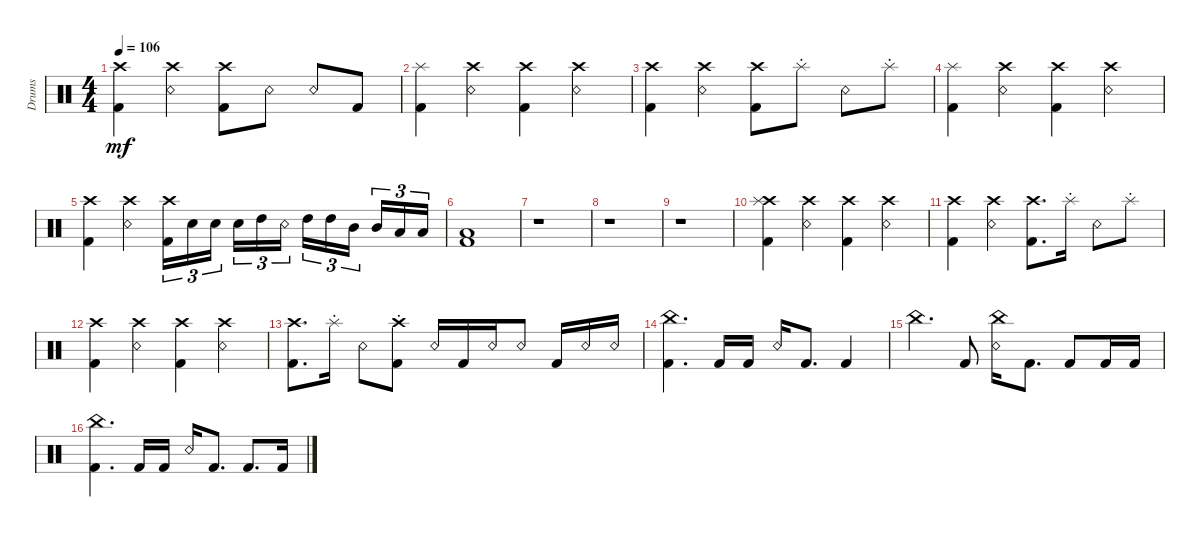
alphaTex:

\track ("Drums" "Drums") {instrument percussion}
\staff {score}
\articulation defaults
\ts (4 4)
\tempo 106
\clef neutral
\ks c
("Crash high (hit)" "Kick (hit) 2").4{dy mf} ("Crash high (hit)" "Snare (rim shot)").4 ("Crash high (hit)" "Kick (hit) 2").8 "Snare (rim shot)".8 "Snare (rim shot)".8 "Kick (hit) 2".8 |
("Splash (hit)" "Kick (hit) 2").4 ("Crash high (hit)" "Snare (rim shot)").4 ("Crash high (hit)" "Kick (hit) 2").4 ("Crash high (hit)" "Snare (rim shot)").4 |
("Crash high (hit)" "Kick (hit) 2").4 ("Crash high (hit)" "Snare (rim shot)").4 ("Crash high (hit)" "Kick (hit) 2").8 "Splash (choke)".8 "Snare (rim shot)".8 "Splash (choke)".8 |
("Splash (hit)" "Kick (hit) 2").4 ("Crash high (hit)" "Snare (rim shot)").4 ("Crash high (hit)" "Kick (hit) 2").4 ("Crash high (hit)" "Snare (rim shot)").4 |
("Crash high (hit)" "Kick (hit) 2").4 ("Crash high (hit)" "Snare (rim shot)").4 ("Crash high (hit)" "Kick (hit) 2").16{tu (3 2)} "Snare (hit) 2".16{tu (3 2)} "Snare (hit) 2".16{tu (3 2)} "Snare (hit) 2".16{tu (3 2)} "High Tom (hit)".16{tu (3 2)} "Snare (rim shot)".16{tu (3 2)} "High Tom (hit)".16{tu (3 2)} "High Tom (hit)".16{tu (3 2)} "Mid Tom (hit)".16{tu (3 2)} "Mid Tom (hit)".16{tu (3 2)} "Low Tom (hit)".16{tu (3 2)} "Low Tom (hit)".16{tu (3 2)} |
("Low Tom (hit)" "Kick (hit) 2").1 |
r.1 |
r.1 |
r.1 |
("Crash high (hit)" "Splash (hit)" "Kick (hit) 2").4 ("Crash high (hit)" "Snare (rim shot)").4 ("Crash high (hit)" "Kick (hit) 2").4 ("Crash high (hit)" "Snare (rim shot)").4 |
("Crash high (hit)" "Kick (hit) 2").4 ("Crash high (hit)" "Snare (rim shot)").4 ("Crash high (hit)" "Kick (hit) 2").8{d} "Splash (choke)".16 "Snare (rim shot)".8 "Splash (choke)".8 |
("Crash high (hit)" "Kick (hit) 2").4 ("Crash high (hit)" "Snare (rim shot)").4 ("Crash high (hit)" "Kick (hit) 2").4 ("Crash high (hit)" "Snare (rim shot)").4 |
("Crash high (hit)" "Kick (hit) 2").8{d} "Splash (choke)".16 "Snare (rim shot)".8 ("Crash high (hit)"{st} "Kick (hit) 2").8 "Snare (rim shot)".16 "Kick (hit) 2".16 "Snare (rim shot)".16 "Snare (rim shot)".8 "Kick (hit) 2".16 "Snare (rim shot)".16 "Snare (rim shot)".16 |
("China (hit)" "Kick (hit) 2").4{d} "Kick (hit) 2".16 "Kick (hit) 2".16 "Snare (rim shot)".16 "Kick (hit) 2".8{d} "Kick (hit) 2".4 |
"China (hit)".4{d} "Kick (hit) 2".8 ("China (hit)" "Snare (rim shot)").16 "Kick (hit) 2".8{d} "Kick (hit) 2".8 "Kick (hit) 2".16 "Kick (hit) 2".16 |
("China (hit)" "Kick (hit) 2").4{d} "Kick (hit) 2".16 "Kick (hit) 2".16 "Snare (rim shot)".16 "Kick (hit) 2".8{d} "Kick (hit) 2".8{d} "Kick (hit) 2".16
